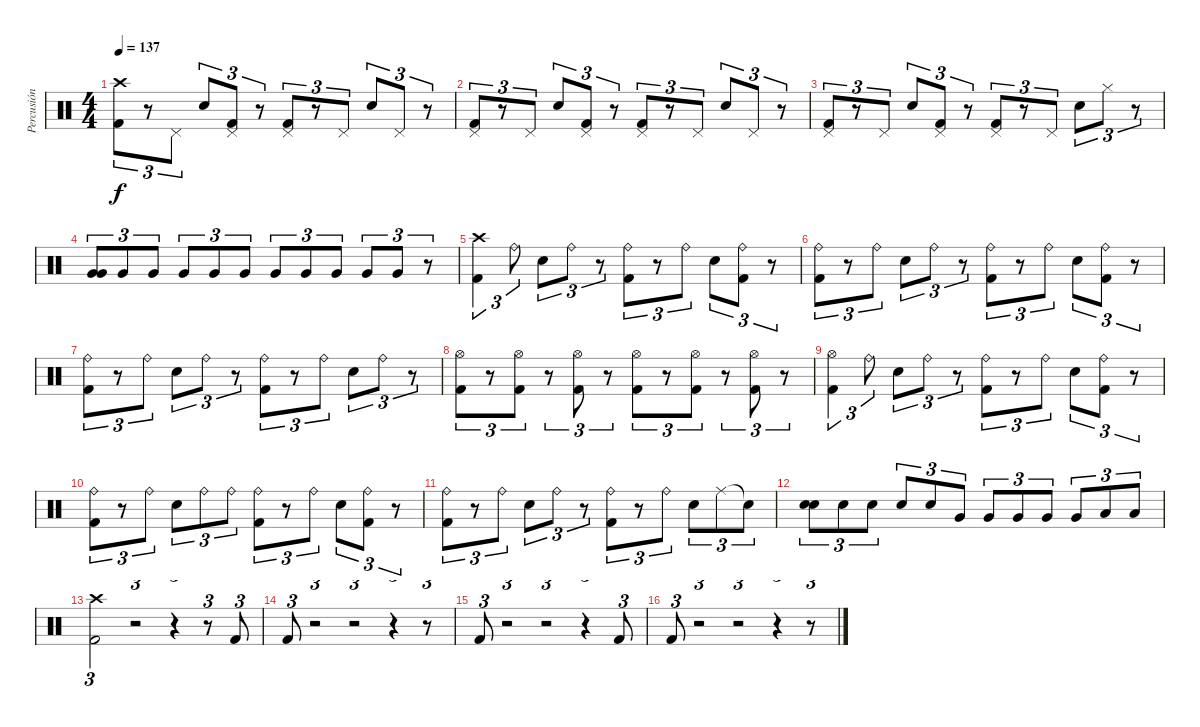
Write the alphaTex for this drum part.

\track ("Percusión" "Percusión") {instrument percussion}
\staff {score}
\articulation defaults
\ts (4 4)
\tempo 137
\clef neutral
\ks c
("Kick (hit) 2" "Crash high (hit)").8{tu (3 2) dy f} r.8{tu (3 2)} "Pedal Hi-Hat (hit)".8{tu (3 2)} "Electric Snare (hit)".8{tu (3 2)} ("Kick (hit) 2" "Pedal Hi-Hat (hit)").8{tu (3 2)} r.8{tu (3 2)} ("Kick (hit) 2" "Pedal Hi-Hat (hit)").8{tu (3 2)} r.8{tu (3 2)} "Pedal Hi-Hat (hit)".8{tu (3 2)} "Electric Snare (hit)".8{tu (3 2)} "Pedal Hi-Hat (hit)".8{tu (3 2)} r.8{tu (3 2)} |
("Kick (hit) 2" "Pedal Hi-Hat (hit)").8{tu (3 2)} r.8{tu (3 2)} "Pedal Hi-Hat (hit)".8{tu (3 2)} "Electric Snare (hit)".8{tu (3 2)} ("Kick (hit) 2" "Pedal Hi-Hat (hit)").8{tu (3 2)} r.8{tu (3 2)} ("Kick (hit) 2" "Pedal Hi-Hat (hit)").8{tu (3 2)} r.8{tu (3 2)} "Pedal Hi-Hat (hit)".8{tu (3 2)} "Electric Snare (hit)".8{tu (3 2)} "Pedal Hi-Hat (hit)".8{tu (3 2)} r.8{tu (3 2)} |
("Kick (hit) 2" "Pedal Hi-Hat (hit)").8{tu (3 2)} r.8{tu (3 2)} "Pedal Hi-Hat (hit)".8{tu (3 2)} "Electric Snare (hit)".8{tu (3 2)} ("Kick (hit) 2" "Pedal Hi-Hat (hit)").8{tu (3 2)} r.8{tu (3 2)} ("Kick (hit) 2" "Pedal Hi-Hat (hit)").8{tu (3 2)} r.8{tu (3 2)} "Pedal Hi-Hat (hit)".8{tu (3 2)} "Electric Snare (hit)".8{tu (3 2)} "Hi-Hat (closed)".8{tu (3 2)} r.8{tu (3 2)} |
("Very Low Tom (hit)" "Very Low Tom (hit)").8{tu (3 2) bd 480} "Very Low Tom (hit)".8{tu (3 2)} "Very Low Tom (hit)".8{tu (3 2)} "Very Low Tom (hit)".8{tu (3 2)} "Very Low Tom (hit)".8{tu (3 2)} "Very Low Tom (hit)".8{tu (3 2)} "Very Low Tom (hit)".8{tu (3 2)} "Very Low Tom (hit)".8{tu (3 2)} "Very Low Tom (hit)".8{tu (3 2)} "Very Low Tom (hit)".8{tu (3 2)} "Very Low Tom (hit)".8{tu (3 2)} r.8{tu (3 2)} |
("Kick (hit) 2" "Crash high (hit)").4{tu (3 2)} "Ride (bell)".8{tu (3 2)} "Electric Snare (hit)".8{tu (3 2)} "Ride (bell)".8{tu (3 2)} r.8{tu (3 2)} ("Kick (hit) 2" "Ride (bell)").8{tu (3 2)} r.8{tu (3 2)} "Ride (bell)".8{tu (3 2)} "Electric Snare (hit)".8{tu (3 2)} ("Kick (hit) 2" "Ride (bell)").8{tu (3 2)} r.8{tu (3 2)} |
("Kick (hit) 2" "Ride (bell)").8{tu (3 2)} r.8{tu (3 2)} "Ride (bell)".8{tu (3 2)} "Electric Snare (hit)".8{tu (3 2)} "Ride (bell)".8{tu (3 2)} r.8{tu (3 2)} ("Kick (hit) 2" "Ride (bell)").8{tu (3 2)} r.8{tu (3 2)} "Ride (bell)".8{tu (3 2)} "Electric Snare (hit)".8{tu (3 2)} ("Kick (hit) 2" "Ride (bell)").8{tu (3 2)} r.8{tu (3 2)} |
("Kick (hit) 2" "Ride (bell)").8{tu (3 2)} r.8{tu (3 2)} "Ride (bell)".8{tu (3 2)} "Electric Snare (hit)".8{tu (3 2)} "Ride (bell)".8{tu (3 2)} r.8{tu (3 2)} ("Kick (hit) 2" "Ride (bell)").8{tu (3 2)} r.8{tu (3 2)} "Ride (bell)".8{tu (3 2)} "Electric Snare (hit)".8{tu (3 2)} "Ride (bell)".8{tu (3 2)} r.8{tu (3 2)} |
("Kick (hit) 2" "Hi-Hat (open)").8{tu (3 2)} r.8{tu (3 2)} ("Kick (hit) 2" "Hi-Hat (open)").8{tu (3 2)} r.8{tu (3 2)} ("Kick (hit) 2" "Hi-Hat (open)").8{tu (3 2)} r.8{tu (3 2)} ("Kick (hit) 2" "Hi-Hat (open)").8{tu (3 2)} r.8{tu (3 2)} ("Kick (hit) 2" "Hi-Hat (open)").8{tu (3 2)} r.8{tu (3 2)} ("Kick (hit) 2" "Hi-Hat (open)").8{tu (3 2)} r.8{tu (3 2)} |
("Kick (hit) 2" "Hi-Hat (open)").4{tu (3 2)} "Ride (bell)".8{tu (3 2)} "Electric Snare (hit)".8{tu (3 2)} "Ride (bell)".8{tu (3 2)} r.8{tu (3 2)} ("Kick (hit) 2" "Ride (bell)").8{tu (3 2)} r.8{tu (3 2)} "Ride (bell)".8{tu (3 2)} "Electric Snare (hit)".8{tu (3 2)} ("Kick (hit) 2" "Ride (bell)").8{tu (3 2)} r.8{tu (3 2)} |
("Kick (hit) 2" "Ride (bell)").8{tu (3 2)} r.8{tu (3 2)} "Ride (bell)".8{tu (3 2)} "Electric Snare (hit)".8{tu (3 2)} "Ride (bell)".8{tu (3 2)} "Ride (bell)".8{tu (3 2)} ("Kick (hit) 2" "Ride (bell)").8{tu (3 2)} r.8{tu (3 2)} "Ride (bell)".8{tu (3 2)} "Electric Snare (hit)".8{tu (3 2)} ("Kick (hit) 2" "Ride (bell)").8{tu (3 2)} r.8{tu (3 2)} |
("Kick (hit) 2" "Ride (bell)").8{tu (3 2)} r.8{tu (3 2)} "Ride (bell)".8{tu (3 2)} "Electric Snare (hit)".8{tu (3 2)} "Ride (bell)".8{tu (3 2)} r.8{tu (3 2)} ("Kick (hit) 2" "Ride (bell)").8{tu (3 2)} r.8{tu (3 2)} "Ride (bell)".8{tu (3 2)} "Electric Snare (hit)".8{tu (3 2)} "Ride (middle)".8{tu (3 2)} "Snare (hit)"{t}.8{tu (3 2)} |
("Electric Snare (hit)" "Electric Snare (hit)").8{tu (3 2) bd 120} "Electric Snare (hit)".8{tu (3 2)} "Electric Snare (hit)".8{tu (3 2)} "Electric Snare (hit)".8{tu (3 2)} "Electric Snare (hit)".8{tu (3 2)} "Very Low Tom (hit)".8{tu (3 2)} "Very Low Tom (hit)".8{tu (3 2)} "Very Low Tom (hit)".8{tu (3 2)} "Very Low Tom (hit)".8{tu (3 2)} "Very Low Tom (hit)".8{tu (3 2)} "Low Floor Tom (hit)".8{tu (3 2)} "Low Floor Tom (hit)".8{tu (3 2)} |
("Kick (hit) 2" "Crash high (hit)").2{tu (3 2)} r.2{tu (3 2)} r.4{tu (3 2)} r.8{tu (3 2)} "Kick (hit) 2".8{tu (3 2)} |
"Kick (hit) 2".8{tu (3 2)} r.2{tu (3 2)} r.2{tu (3 2)} r.4{tu (3 2)} r.8{tu (3 2)} |
"Kick (hit) 2".8{tu (3 2)} r.2{tu (3 2)} r.2{tu (3 2)} r.4{tu (3 2)} "Kick (hit) 2".8{tu (3 2)} |
"Kick (hit) 2".8{tu (3 2)} r.2{tu (3 2)} r.2{tu (3 2)} r.4{tu (3 2)} r.8{tu (3 2)}
